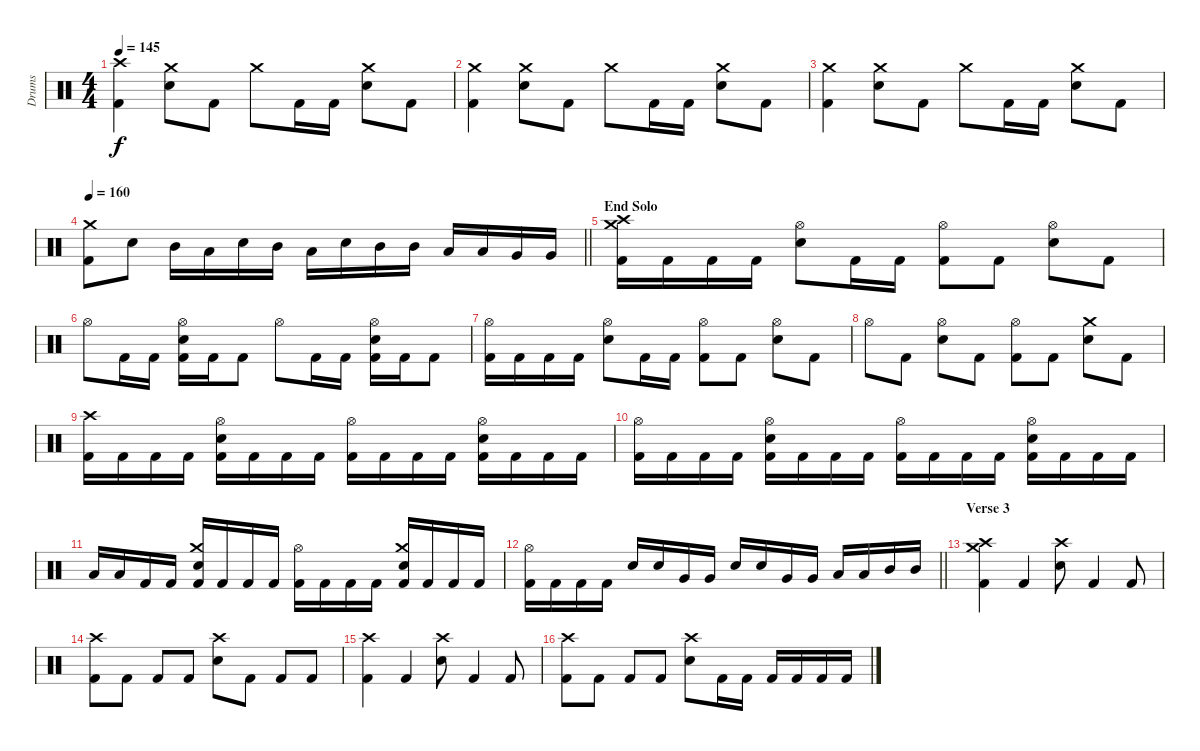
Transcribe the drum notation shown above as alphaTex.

\track ("Drums" "Drums") {instrument percussion}
\staff {score}
\articulation defaults
\ts (4 4)
\tempo 145
\clef neutral
\ks c
("Crash high (hit)" "Kick (hit) 2").4{dy f} ("Crash medium (hit)" "Electric Snare (hit)").8 "Kick (hit) 2".8 "Crash medium (hit)".8 "Kick (hit) 2".16 "Kick (hit) 2".16 ("Crash medium (hit)" "Electric Snare (hit)").8 "Kick (hit) 2".8 |
("Crash medium (hit)" "Kick (hit) 2").4 ("Crash medium (hit)" "Electric Snare (hit)").8 "Kick (hit) 2".8 "Crash medium (hit)".8 "Kick (hit) 2".16 "Kick (hit) 2".16 ("Crash medium (hit)" "Electric Snare (hit)").8 "Kick (hit) 2".8 |
("Crash medium (hit)" "Kick (hit) 2").4 ("Crash medium (hit)" "Electric Snare (hit)").8 "Kick (hit) 2".8 "Crash medium (hit)".8 "Kick (hit) 2".16 "Kick (hit) 2".16 ("Crash medium (hit)" "Electric Snare (hit)").8 "Kick (hit) 2".8 |
\tempo 160
\barLineRight lightlight
("Crash medium (hit)" "Kick (hit) 2").8 "Electric Snare (hit)".8 "Mid Tom (hit)".16 "Low Tom (hit)".16 "Electric Snare (hit)".16 "Mid Tom (hit)".16 "Low Tom (hit)".16 "Electric Snare (hit)".16 "Mid Tom (hit)".16 "Mid Tom (hit)".16 "Low Tom (hit)".16 "Low Tom (hit)".16 "Very Low Tom (hit)".16 "Very Low Tom (hit)".16 |
\section ("" "End Solo")
("Crash high (hit)" "Crash medium (hit)" "Kick (hit) 2").16 "Kick (hit) 2".16 "Kick (hit) 2".16 "Kick (hit) 2".16 ("Hi-Hat (open)" "Electric Snare (hit)").8 "Kick (hit) 2".16 "Kick (hit) 2".16 ("Hi-Hat (open)" "Kick (hit) 2").8 "Kick (hit) 2".8 ("Hi-Hat (open)" "Electric Snare (hit)").8 "Kick (hit) 2".8 |
"Hi-Hat (open)".8 "Kick (hit) 2".16 "Kick (hit) 2".16 ("Hi-Hat (open)" "Electric Snare (hit)" "Kick (hit) 2").16 "Kick (hit) 2".16 "Kick (hit) 2".8 "Hi-Hat (open)".8 "Kick (hit) 2".16 "Kick (hit) 2".16 ("Hi-Hat (open)" "Electric Snare (hit)" "Kick (hit) 2").16 "Kick (hit) 2".16 "Kick (hit) 2".8 |
("Hi-Hat (open)" "Kick (hit) 2").16 "Kick (hit) 2".16 "Kick (hit) 2".16 "Kick (hit) 2".16 ("Hi-Hat (open)" "Electric Snare (hit)").8 "Kick (hit) 2".16 "Kick (hit) 2".16 ("Hi-Hat (open)" "Kick (hit) 2").8 "Kick (hit) 2".8 ("Hi-Hat (open)" "Electric Snare (hit)").8 "Kick (hit) 2".8 |
"Hi-Hat (open)".8 "Kick (hit) 2".8 ("Hi-Hat (open)" "Electric Snare (hit)").8 "Kick (hit) 2".8 ("Hi-Hat (open)" "Kick (hit) 2").8 "Kick (hit) 2".8 ("Crash medium (hit)" "Electric Snare (hit)").8 "Kick (hit) 2".8 |
("Crash high (hit)" "Kick (hit) 2").16 "Kick (hit) 2".16 "Kick (hit) 2".16 "Kick (hit) 2".16 ("Hi-Hat (open)" "Electric Snare (hit)" "Kick (hit) 2").16 "Kick (hit) 2".16 "Kick (hit) 2".16 "Kick (hit) 2".16 ("Hi-Hat (open)" "Kick (hit) 2").16 "Kick (hit) 2".16 "Kick (hit) 2".16 "Kick (hit) 2".16 ("Hi-Hat (open)" "Electric Snare (hit)" "Kick (hit) 2").16 "Kick (hit) 2".16 "Kick (hit) 2".16 "Kick (hit) 2".16 |
("Hi-Hat (open)" "Kick (hit) 2").16 "Kick (hit) 2".16 "Kick (hit) 2".16 "Kick (hit) 2".16 ("Hi-Hat (open)" "Electric Snare (hit)" "Kick (hit) 2").16 "Kick (hit) 2".16 "Kick (hit) 2".16 "Kick (hit) 2".16 ("Hi-Hat (open)" "Kick (hit) 2").16 "Kick (hit) 2".16 "Kick (hit) 2".16 "Kick (hit) 2".16 ("Hi-Hat (open)" "Electric Snare (hit)" "Kick (hit) 2").16 "Kick (hit) 2".16 "Kick (hit) 2".16 "Kick (hit) 2".16 |
"Low Floor Tom (hit)".16 "Low Floor Tom (hit)".16 "Kick (hit) 2".16 "Kick (hit) 2".16 ("Crash medium (hit)" "Electric Snare (hit)" "Kick (hit) 2").16 "Kick (hit) 2".16 "Kick (hit) 2".16 "Kick (hit) 2".16 ("Hi-Hat (open)" "Kick (hit) 2").16 "Kick (hit) 2".16 "Kick (hit) 2".16 "Kick (hit) 2".16 ("Crash medium (hit)" "Electric Snare (hit)" "Kick (hit) 2").16 "Kick (hit) 2".16 "Kick (hit) 2".16 "Kick (hit) 2".16 |
\barLineRight lightlight
("Hi-Hat (open)" "Kick (hit) 2").16 "Kick (hit) 2".16 "Kick (hit) 2".16 "Kick (hit) 2".16 "Electric Snare (hit)".16 "Electric Snare (hit)".16 "Very Low Tom (hit)".16 "Very Low Tom (hit)".16 "Electric Snare (hit)".16 "Electric Snare (hit)".16 "Very Low Tom (hit)".16 "Very Low Tom (hit)".16 "Low Tom (hit)".16 "Low Tom (hit)".16 "Mid Tom (hit)".16 "Mid Tom (hit)".16 |
\section ("" "Verse 3")
("Crash high (hit)" "Crash medium (hit)" "Kick (hit) 2").4 "Kick (hit) 2".4 ("Crash high (hit)" "Electric Snare (hit)").8 "Kick (hit) 2".4 "Kick (hit) 2".8 |
("Crash high (hit)" "Kick (hit) 2").8 "Kick (hit) 2".8 "Kick (hit) 2".8 "Kick (hit) 2".8 ("Crash high (hit)" "Electric Snare (hit)").8 "Kick (hit) 2".8 "Kick (hit) 2".8 "Kick (hit) 2".8 |
("Crash high (hit)" "Kick (hit) 2").4 "Kick (hit) 2".4 ("Crash high (hit)" "Electric Snare (hit)").8 "Kick (hit) 2".4 "Kick (hit) 2".8 |
("Crash high (hit)" "Kick (hit) 2").8 "Kick (hit) 2".8 "Kick (hit) 2".8 "Kick (hit) 2".8 ("Crash high (hit)" "Electric Snare (hit)").8 "Kick (hit) 2".16 "Kick (hit) 2".16 "Kick (hit) 2".16 "Kick (hit) 2".16 "Kick (hit) 2".16 "Kick (hit) 2".16
